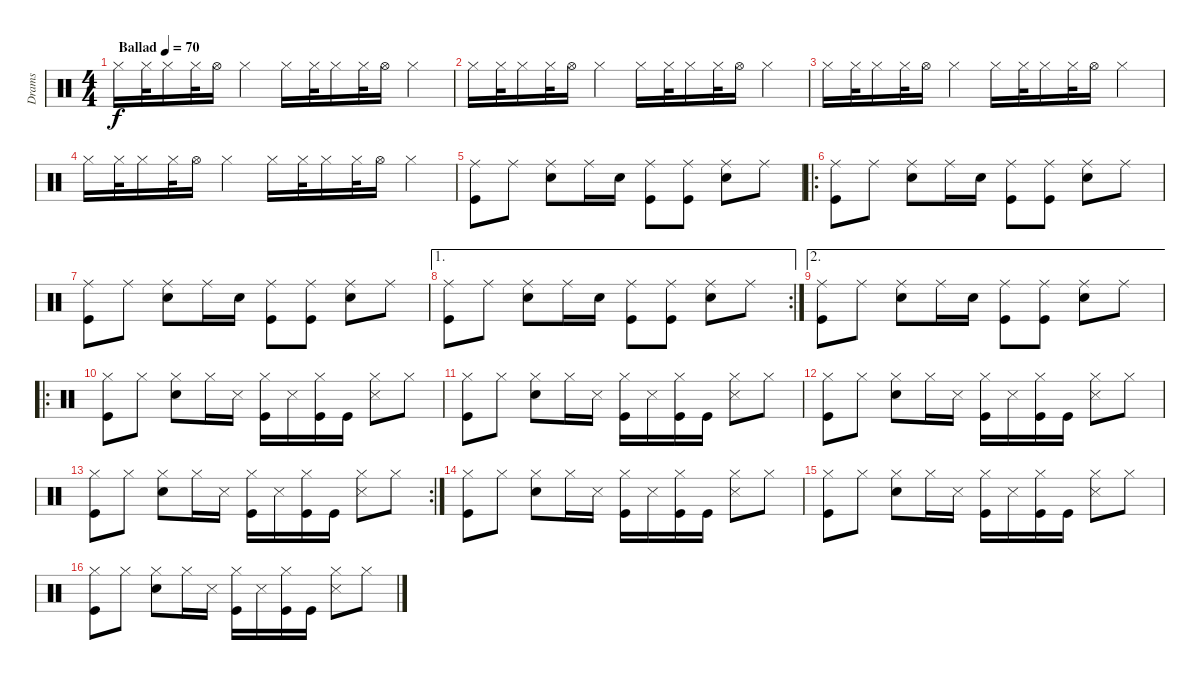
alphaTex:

\track ("Drams" "Drams") {instrument percussion}
\staff {score}
\articulation defaults
\ts (4 4)
\tempo (70 "Ballad")
\clef neutral
\ks aminor "Hi-Hat (closed)".16{dy f} "Hi-Hat (closed)".32 "Hi-Hat (closed)".16 "Hi-Hat (closed)".32 "Hi-Hat (open)".16 "Hi-Hat (closed)".4 "Hi-Hat (closed)".16 "Hi-Hat (closed)".32 "Hi-Hat (closed)".16 "Hi-Hat (closed)".32 "Hi-Hat (open)".16 "Hi-Hat (closed)".4
|
"Hi-Hat (closed)".16 "Hi-Hat (closed)".32 "Hi-Hat (closed)".16 "Hi-Hat (closed)".32 "Hi-Hat (open)".16 "Hi-Hat (closed)".4 "Hi-Hat (closed)".16 "Hi-Hat (closed)".32 "Hi-Hat (closed)".16 "Hi-Hat (closed)".32 "Hi-Hat (open)".16 "Hi-Hat (closed)".4 |
"Hi-Hat (closed)".16 "Hi-Hat (closed)".32 "Hi-Hat (closed)".16 "Hi-Hat (closed)".32 "Hi-Hat (open)".16 "Hi-Hat (closed)".4 "Hi-Hat (closed)".16 "Hi-Hat (closed)".32 "Hi-Hat (closed)".16 "Hi-Hat (closed)".32 "Hi-Hat (open)".16 "Hi-Hat (closed)".4 |
"Hi-Hat (closed)".16 "Hi-Hat (closed)".32 "Hi-Hat (closed)".16 "Hi-Hat (closed)".32 "Hi-Hat (open)".16 "Hi-Hat (closed)".4 "Hi-Hat (closed)".16 "Hi-Hat (closed)".32 "Hi-Hat (closed)".16 "Hi-Hat (closed)".32 "Hi-Hat (open)".16 "Hi-Hat (closed)".4 |
("Kick (hit)" "Ride (middle)").8 "Ride (middle)".8 ("Electric Snare (hit)" "Ride (middle)").8 "Ride (middle)".16 "Electric Snare (hit)".16 ("Ride (middle)" "Kick (hit)").8 ("Kick (hit)" "Ride (middle)").8 ("Electric Snare (hit)" "Ride (middle)").8 "Ride (middle)".8 |
\ro
("Kick (hit)" "Ride (middle)").8 "Ride (middle)".8 ("Electric Snare (hit)" "Ride (middle)").8 "Ride (middle)".16 "Electric Snare (hit)".16 ("Ride (middle)" "Kick (hit)").8 ("Kick (hit)" "Ride (middle)").8 ("Electric Snare (hit)" "Ride (middle)").8 "Ride (middle)".8 |
("Kick (hit)" "Ride (middle)").8 "Ride (middle)".8 ("Electric Snare (hit)" "Ride (middle)").8 "Ride (middle)".16 "Electric Snare (hit)".16 ("Ride (middle)" "Kick (hit)").8 ("Kick (hit)" "Ride (middle)").8 ("Electric Snare (hit)" "Ride (middle)").8 "Ride (middle)".8 |
\ae 1
\rc 2
("Kick (hit)" "Ride (middle)").8 "Ride (middle)".8 ("Electric Snare (hit)" "Ride (middle)").8 "Ride (middle)".16 "Electric Snare (hit)".16 ("Ride (middle)" "Kick (hit)").8 ("Kick (hit)" "Ride (middle)").8 ("Electric Snare (hit)" "Ride (middle)").8 "Ride (middle)".8 |
\ae 2
("Kick (hit)" "Ride (middle)").8 "Ride (middle)".8 ("Electric Snare (hit)" "Ride (middle)").8 "Ride (middle)".16 "Electric Snare (hit)".16 ("Ride (middle)" "Kick (hit)").8 ("Kick (hit)" "Ride (middle)").8 ("Electric Snare (hit)" "Ride (middle)").8 "Ride (middle)".8 |
\ro
("Hi-Hat (closed)" "Kick (hit)").8 "Hi-Hat (closed)".8 ("Hi-Hat (closed)" "Electric Snare (hit)").8 "Hi-Hat (closed)".16 "Snare (side stick) 3".16 ("Kick (hit)" "Hi-Hat (closed)").16 "Snare (side stick) 3".16 ("Kick (hit)" "Hi-Hat (closed)").16 "Kick (hit)".16 ("Snare (side stick) 3" "Hi-Hat (closed)").8 "Hi-Hat (closed)".8 |
("Hi-Hat (closed)" "Kick (hit)").8 "Hi-Hat (closed)".8 ("Hi-Hat (closed)" "Electric Snare (hit)").8 "Hi-Hat (closed)".16 "Snare (side stick) 3".16 ("Kick (hit)" "Hi-Hat (closed)").16 "Snare (side stick) 3".16 ("Kick (hit)" "Hi-Hat (closed)").16 "Kick (hit)".16 ("Snare (side stick) 3" "Hi-Hat (closed)").8 "Hi-Hat (closed)".8 |
("Hi-Hat (closed)" "Kick (hit)").8 "Hi-Hat (closed)".8 ("Hi-Hat (closed)" "Electric Snare (hit)").8 "Hi-Hat (closed)".16 "Snare (side stick) 3".16 ("Kick (hit)" "Hi-Hat (closed)").16 "Snare (side stick) 3".16 ("Kick (hit)" "Hi-Hat (closed)").16 "Kick (hit)".16 ("Snare (side stick) 3" "Hi-Hat (closed)").8 "Hi-Hat (closed)".8 |
\rc 2
("Hi-Hat (closed)" "Kick (hit)").8 "Hi-Hat (closed)".8 ("Hi-Hat (closed)" "Electric Snare (hit)").8 "Hi-Hat (closed)".16 "Snare (side stick) 3".16 ("Kick (hit)" "Hi-Hat (closed)").16 "Snare (side stick) 3".16 ("Kick (hit)" "Hi-Hat (closed)").16 "Kick (hit)".16 ("Snare (side stick) 3" "Hi-Hat (closed)").8 "Hi-Hat (closed)".8 |
("Hi-Hat (closed)" "Kick (hit)").8 "Hi-Hat (closed)".8 ("Hi-Hat (closed)" "Electric Snare (hit)").8 "Hi-Hat (closed)".16 "Snare (side stick) 3".16 ("Kick (hit)" "Hi-Hat (closed)").16 "Snare (side stick) 3".16 ("Kick (hit)" "Hi-Hat (closed)").16 "Kick (hit)".16 ("Snare (side stick) 3" "Hi-Hat (closed)").8 "Hi-Hat (closed)".8 |
("Hi-Hat (closed)" "Kick (hit)").8 "Hi-Hat (closed)".8 ("Hi-Hat (closed)" "Electric Snare (hit)").8 "Hi-Hat (closed)".16 "Snare (side stick) 3".16 ("Kick (hit)" "Hi-Hat (closed)").16 "Snare (side stick) 3".16 ("Kick (hit)" "Hi-Hat (closed)").16 "Kick (hit)".16 ("Snare (side stick) 3" "Hi-Hat (closed)").8 "Hi-Hat (closed)".8 |
("Hi-Hat (closed)" "Kick (hit)").8 "Hi-Hat (closed)".8 ("Hi-Hat (closed)" "Electric Snare (hit)").8 "Hi-Hat (closed)".16 "Snare (side stick) 3".16 ("Kick (hit)" "Hi-Hat (closed)").16 "Snare (side stick) 3".16 ("Kick (hit)" "Hi-Hat (closed)").16 "Kick (hit)".16 ("Snare (side stick) 3" "Hi-Hat (closed)").8 "Hi-Hat (closed)".8
